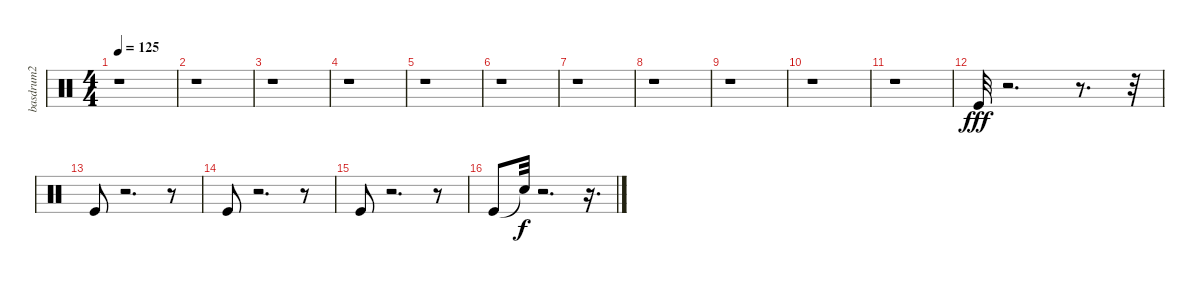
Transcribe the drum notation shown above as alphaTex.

\track ("basdrum2" "basdrum2") {instrument percussion}
\staff {score}
\articulation defaults
\ts (4 4)
\tempo 125
\clef neutral
\ks c
r.1{dy fff} |
r.1 |
r.1 |
r.1 |
r.1 |
r.1 |
r.1 |
r.1 |
r.1 |
r.1 |
r.1 |
"Kick (hit)".32 r.2{d} r.8{d} r.32 |
"Kick (hit)".8 r.2{d} r.8 |
"Kick (hit)".8 r.2{d} r.8 |
"Kick (hit)".8 r.2{d} r.8 |
"Kick (hit)".8 "Snare (hit)"{t}.32{dy f} r.2{d} r.16{d}
